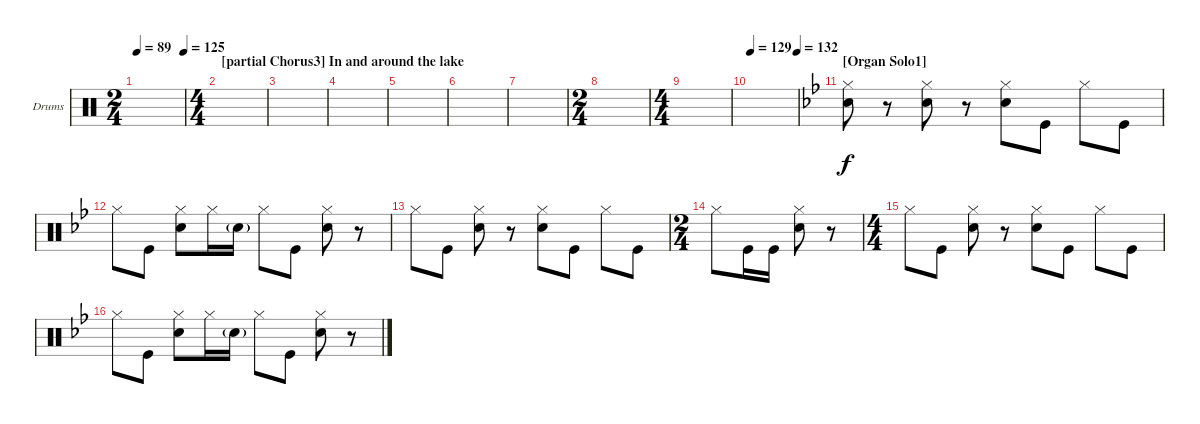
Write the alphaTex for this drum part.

\bracketExtendMode groupsimilarinstruments
\firstSystemTrackNameOrientation horizontal
\otherSystemsTrackNameOrientation horizontal
\track ("Drumkit" "Drums") {instrument percussion}
\staff {score}
\articulation defaults
\ts (2 4)
\tempo 89
\tempo (125 1)
\clef neutral
\ks aminor
|
\ts (4 4)
\section ("" "[partial Chorus3] In and around the lake")
|
|
|
|
|
|
\ts (2 4)
|
\ts (4 4)
|
\tempo 129
\tempo (132 0.99375)
|
\section ("" "[Organ Solo1]")
\ks gminor
("Hi-Hat (closed)" "Snare (hit) 2").8{dy f} r.8 ("Hi-Hat (closed)" "Snare (hit) 2").8 r.8 ("Hi-Hat (closed)" "Snare (hit) 2").8 "Kick (hit)".8 "Hi-Hat (closed)".8 "Kick (hit)".8 |
"Hi-Hat (closed)".8 "Kick (hit)".8 ("Hi-Hat (closed)" "Snare (hit) 2").8 "Hi-Hat (closed)".16 "Snare (hit) 2"{g}.16 "Hi-Hat (closed)".8 "Kick (hit)".8 ("Hi-Hat (closed)" "Snare (hit) 2").8 r.8 |
"Hi-Hat (closed)".8 "Kick (hit)".8 ("Hi-Hat (closed)" "Snare (hit) 2").8 r.8 ("Hi-Hat (closed)" "Snare (hit) 2").8 "Kick (hit)".8 "Hi-Hat (closed)".8 "Kick (hit)".8 |
\ts (2 4)
"Hi-Hat (closed)".8 "Kick (hit)".16 "Kick (hit)".16 ("Hi-Hat (closed)" "Snare (hit) 2").8 r.8 |
\ts (4 4)
"Hi-Hat (closed)".8 "Kick (hit)".8 ("Hi-Hat (closed)" "Snare (hit) 2").8 r.8 ("Hi-Hat (closed)" "Snare (hit) 2").8 "Kick (hit)".8 "Hi-Hat (closed)".8 "Kick (hit)".8 |
"Hi-Hat (closed)".8 "Kick (hit)".8 ("Hi-Hat (closed)" "Snare (hit) 2").8 "Hi-Hat (closed)".16 "Snare (hit) 2"{g}.16 "Hi-Hat (closed)".8 "Kick (hit)".8 ("Hi-Hat (closed)" "Snare (hit) 2").8 r.8
